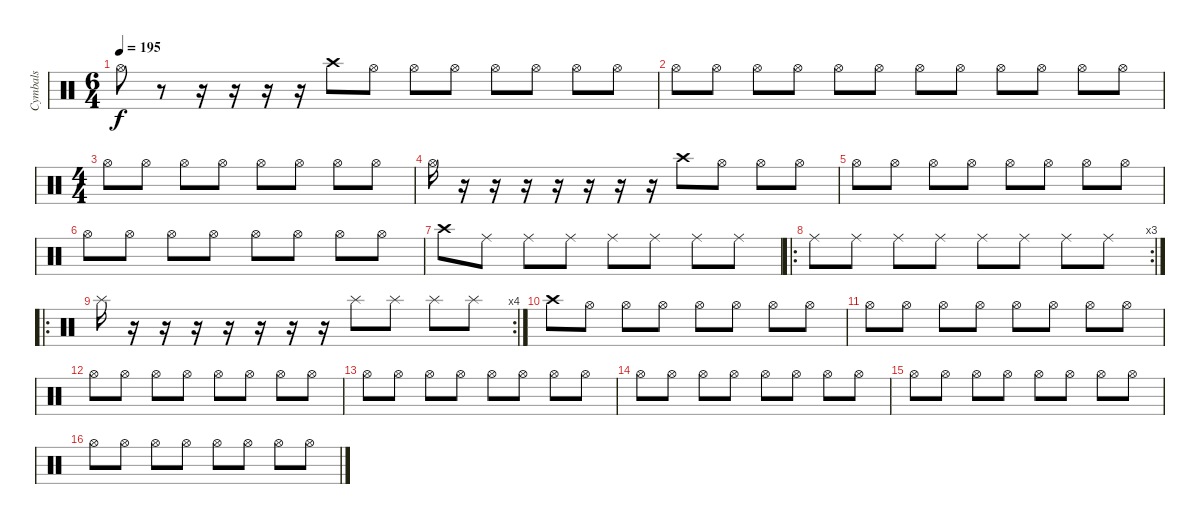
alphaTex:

\track ("Cymbals" "Cymbals") {instrument percussion}
\staff {score}
\articulation defaults
\ts (6 4)
\tempo 195
\clef neutral
\ks c "Hi-Hat (open)".8{dy f}
r.8 r.16 r.16 r.16 r.16 "Crash high (hit)".8 "Hi-Hat (open)".8 "Hi-Hat (open)".8 "Hi-Hat (open)".8 "Hi-Hat (open)".8 "Hi-Hat (open)".8 "Hi-Hat (open)".8 "Hi-Hat (open)".8 |
"Hi-Hat (open)".8 "Hi-Hat (open)".8 "Hi-Hat (open)".8 "Hi-Hat (open)".8 "Hi-Hat (open)".8 "Hi-Hat (open)".8 "Hi-Hat (open)".8 "Hi-Hat (open)".8 "Hi-Hat (open)".8 "Hi-Hat (open)".8 "Hi-Hat (open)".8 "Hi-Hat (open)".8 |
\ts (4 4)
"Hi-Hat (open)".8 "Hi-Hat (open)".8 "Hi-Hat (open)".8 "Hi-Hat (open)".8 "Hi-Hat (open)".8 "Hi-Hat (open)".8 "Hi-Hat (open)".8 "Hi-Hat (open)".8 |
"Hi-Hat (open)".16 r.16 r.16 r.16 r.16 r.16 r.16 r.16 "Crash high (hit)".8 "Hi-Hat (open)".8 "Hi-Hat (open)".8 "Hi-Hat (open)".8 |
"Hi-Hat (open)".8 "Hi-Hat (open)".8 "Hi-Hat (open)".8 "Hi-Hat (open)".8 "Hi-Hat (open)".8 "Hi-Hat (open)".8 "Hi-Hat (open)".8 "Hi-Hat (open)".8 |
"Hi-Hat (open)".8 "Hi-Hat (open)".8 "Hi-Hat (open)".8 "Hi-Hat (open)".8 "Hi-Hat (open)".8 "Hi-Hat (open)".8 "Hi-Hat (open)".8 "Hi-Hat (open)".8 |
"Crash high (hit)".8 "Ride (middle)".8 "Ride (middle)".8 "Ride (middle)".8 "Ride (middle)".8 "Ride (middle)".8 "Ride (middle)".8 "Ride (middle)".8 |
\ro
\rc 3 "Ride (middle)".8 "Ride (middle)".8 "Ride (middle)".8 "Ride (middle)".8 "Ride (middle)".8 "Ride (middle)".8 "Ride (middle)".8 "Ride (middle)".8
|
\ro
\rc 4 "Splash (hit)".16
r.16 r.16 r.16 r.16 r.16 r.16 r.16 "Splash (hit)".8 "Splash (hit)".8 "Splash (hit)".8 "Splash (hit)".8 |
"Crash high (hit)".8 "Hi-Hat (open)".8 "Hi-Hat (open)".8 "Hi-Hat (open)".8 "Hi-Hat (open)".8 "Hi-Hat (open)".8 "Hi-Hat (open)".8 "Hi-Hat (open)".8 |
"Hi-Hat (open)".8 "Hi-Hat (open)".8 "Hi-Hat (open)".8 "Hi-Hat (open)".8 "Hi-Hat (open)".8 "Hi-Hat (open)".8 "Hi-Hat (open)".8 "Hi-Hat (open)".8 |
"Hi-Hat (open)".8 "Hi-Hat (open)".8 "Hi-Hat (open)".8 "Hi-Hat (open)".8 "Hi-Hat (open)".8 "Hi-Hat (open)".8 "Hi-Hat (open)".8 "Hi-Hat (open)".8 |
"Hi-Hat (open)".8 "Hi-Hat (open)".8 "Hi-Hat (open)".8 "Hi-Hat (open)".8 "Hi-Hat (open)".8 "Hi-Hat (open)".8 "Hi-Hat (open)".8 "Hi-Hat (open)".8 |
"Hi-Hat (open)".8 "Hi-Hat (open)".8 "Hi-Hat (open)".8 "Hi-Hat (open)".8 "Hi-Hat (open)".8 "Hi-Hat (open)".8 "Hi-Hat (open)".8 "Hi-Hat (open)".8 |
"Hi-Hat (open)".8 "Hi-Hat (open)".8 "Hi-Hat (open)".8 "Hi-Hat (open)".8 "Hi-Hat (open)".8 "Hi-Hat (open)".8 "Hi-Hat (open)".8 "Hi-Hat (open)".8 |
"Hi-Hat (open)".8 "Hi-Hat (open)".8 "Hi-Hat (open)".8 "Hi-Hat (open)".8 "Hi-Hat (open)".8 "Hi-Hat (open)".8 "Hi-Hat (open)".8 "Hi-Hat (open)".8
